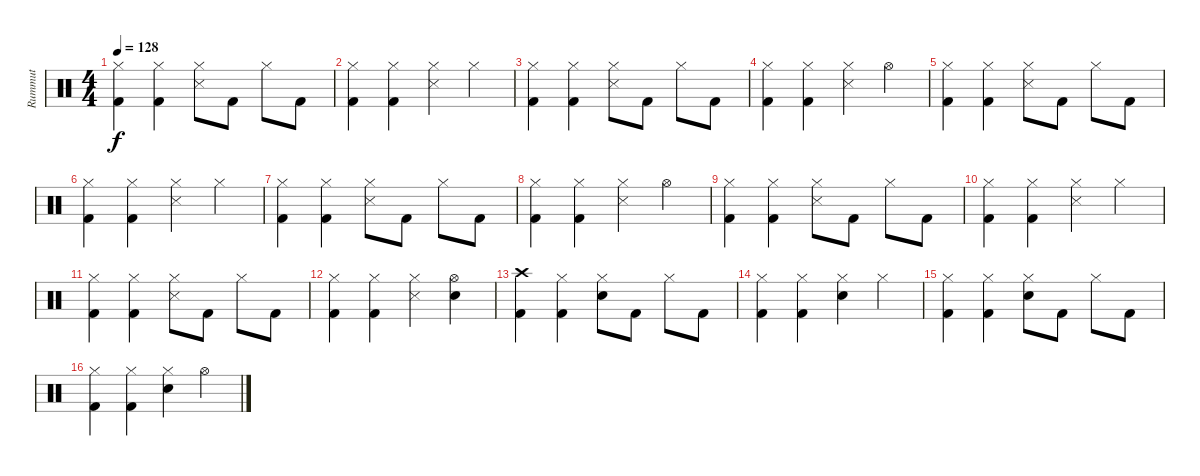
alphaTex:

\track ("Rummut" "Rummut") {instrument percussion}
\staff {score}
\articulation defaults
\ts (4 4)
\tempo 128
\clef neutral
\ks aminor
("Hi-Hat (closed)" "Kick (hit) 2").4{dy f} ("Hi-Hat (closed)" "Kick (hit) 2").4 ("Hi-Hat (closed)" "Snare (side stick) 3").8 "Kick (hit) 2".8 "Hi-Hat (closed)".8 "Kick (hit) 2".8 |
("Hi-Hat (closed)" "Kick (hit) 2").4 ("Hi-Hat (closed)" "Kick (hit) 2").4 ("Hi-Hat (closed)" "Snare (side stick) 3").4 "Hi-Hat (closed)".4 |
("Hi-Hat (closed)" "Kick (hit) 2").4 ("Hi-Hat (closed)" "Kick (hit) 2").4 ("Hi-Hat (closed)" "Snare (side stick) 3").8 "Kick (hit) 2".8 "Hi-Hat (closed)".8 "Kick (hit) 2".8 |
("Hi-Hat (closed)" "Kick (hit) 2").4 ("Hi-Hat (closed)" "Kick (hit) 2").4 ("Hi-Hat (closed)" "Snare (side stick) 3").4 "Hi-Hat (open)".4 |
("Hi-Hat (closed)" "Kick (hit) 2").4 ("Hi-Hat (closed)" "Kick (hit) 2").4 ("Hi-Hat (closed)" "Snare (side stick) 3").8 "Kick (hit) 2".8 "Hi-Hat (closed)".8 "Kick (hit) 2".8 |
("Hi-Hat (closed)" "Kick (hit) 2").4 ("Hi-Hat (closed)" "Kick (hit) 2").4 ("Hi-Hat (closed)" "Snare (side stick) 3").4 "Hi-Hat (closed)".4 |
("Hi-Hat (closed)" "Kick (hit) 2").4 ("Hi-Hat (closed)" "Kick (hit) 2").4 ("Hi-Hat (closed)" "Snare (side stick) 3").8 "Kick (hit) 2".8 "Hi-Hat (closed)".8 "Kick (hit) 2".8 |
("Hi-Hat (closed)" "Kick (hit) 2").4 ("Hi-Hat (closed)" "Kick (hit) 2").4 ("Hi-Hat (closed)" "Snare (side stick) 3").4 "Hi-Hat (open)".4 |
("Hi-Hat (closed)" "Kick (hit) 2").4 ("Hi-Hat (closed)" "Kick (hit) 2").4 ("Hi-Hat (closed)" "Snare (side stick) 3").8 "Kick (hit) 2".8 "Hi-Hat (closed)".8 "Kick (hit) 2".8 |
("Hi-Hat (closed)" "Kick (hit) 2").4 ("Hi-Hat (closed)" "Kick (hit) 2").4 ("Hi-Hat (closed)" "Snare (side stick) 3").4 "Hi-Hat (closed)".4 |
("Hi-Hat (closed)" "Kick (hit) 2").4 ("Hi-Hat (closed)" "Kick (hit) 2").4 ("Hi-Hat (closed)" "Snare (side stick) 3").8 "Kick (hit) 2".8 "Hi-Hat (closed)".8 "Kick (hit) 2".8 |
("Hi-Hat (closed)" "Kick (hit) 2").4 ("Hi-Hat (closed)" "Kick (hit) 2").4 ("Hi-Hat (closed)" "Snare (side stick) 3").4 ("Hi-Hat (open)" "Electric Snare (hit)").4 |
("Crash high (hit)" "Kick (hit) 2").4 ("Hi-Hat (closed)" "Kick (hit) 2").4 ("Hi-Hat (closed)" "Electric Snare (hit)").8 "Kick (hit) 2".8 "Hi-Hat (closed)".8 "Kick (hit) 2".8 |
("Hi-Hat (closed)" "Kick (hit) 2").4 ("Hi-Hat (closed)" "Kick (hit) 2").4 ("Hi-Hat (closed)" "Electric Snare (hit)").4 "Hi-Hat (closed)".4 |
("Hi-Hat (closed)" "Kick (hit) 2").4 ("Hi-Hat (closed)" "Kick (hit) 2").4 ("Hi-Hat (closed)" "Electric Snare (hit)").8 "Kick (hit) 2".8 "Hi-Hat (closed)".8 "Kick (hit) 2".8 |
("Hi-Hat (closed)" "Kick (hit) 2").4 ("Hi-Hat (closed)" "Kick (hit) 2").4 ("Hi-Hat (closed)" "Electric Snare (hit)").4 "Hi-Hat (open)".4
